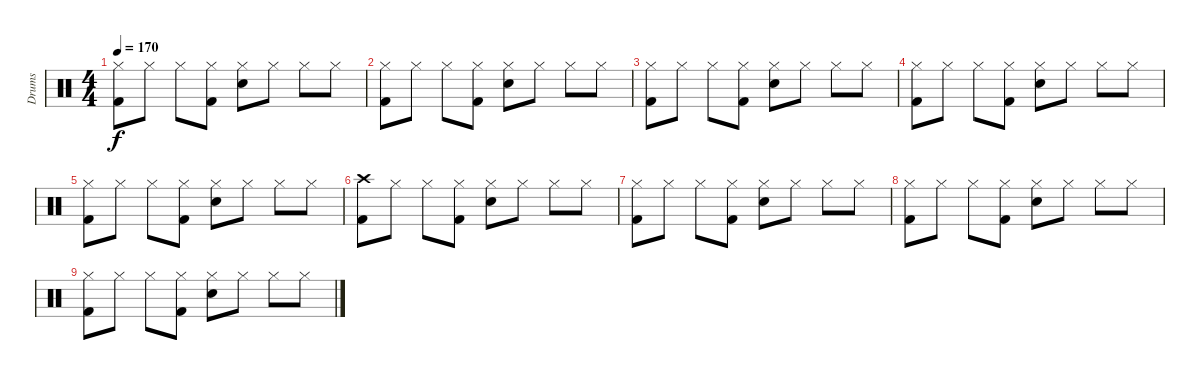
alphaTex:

\track ("Drums" "Drums") {instrument percussion}
\staff {score}
\articulation defaults
\ts (4 4)
\tempo 170
\clef neutral
\ks c
("Hi-Hat (closed)" "Kick (hit) 2").8{dy f} "Hi-Hat (closed)".8 "Hi-Hat (closed)".8 ("Hi-Hat (closed)" "Kick (hit) 2").8 ("Hi-Hat (closed)" "Snare (hit) 2").8 "Hi-Hat (closed)".8 "Hi-Hat (closed)".8 "Hi-Hat (closed)".8 |
("Hi-Hat (closed)" "Kick (hit) 2").8 "Hi-Hat (closed)".8 "Hi-Hat (closed)".8 ("Hi-Hat (closed)" "Kick (hit) 2").8 ("Hi-Hat (closed)" "Snare (hit) 2").8 "Hi-Hat (closed)".8 "Hi-Hat (closed)".8 "Hi-Hat (closed)".8 |
("Hi-Hat (closed)" "Kick (hit) 2").8 "Hi-Hat (closed)".8 "Hi-Hat (closed)".8 ("Hi-Hat (closed)" "Kick (hit) 2").8 ("Hi-Hat (closed)" "Snare (hit) 2").8 "Hi-Hat (closed)".8 "Hi-Hat (closed)".8 "Hi-Hat (closed)".8 |
("Hi-Hat (closed)" "Kick (hit) 2").8 "Hi-Hat (closed)".8 "Hi-Hat (closed)".8 ("Hi-Hat (closed)" "Kick (hit) 2").8 ("Hi-Hat (closed)" "Snare (hit) 2").8 "Hi-Hat (closed)".8 "Hi-Hat (closed)".8 "Hi-Hat (closed)".8 |
("Hi-Hat (closed)" "Kick (hit) 2").8 "Hi-Hat (closed)".8 "Hi-Hat (closed)".8 ("Hi-Hat (closed)" "Kick (hit) 2").8 ("Hi-Hat (closed)" "Snare (hit) 2").8 "Hi-Hat (closed)".8 "Hi-Hat (closed)".8 "Hi-Hat (closed)".8 |
("Crash high (hit)" "Kick (hit) 2").8 "Hi-Hat (closed)".8 "Hi-Hat (closed)".8 ("Hi-Hat (closed)" "Kick (hit) 2").8 ("Hi-Hat (closed)" "Snare (hit) 2").8 "Hi-Hat (closed)".8 "Hi-Hat (closed)".8 "Hi-Hat (closed)".8 |
("Hi-Hat (closed)" "Kick (hit) 2").8 "Hi-Hat (closed)".8 "Hi-Hat (closed)".8 ("Hi-Hat (closed)" "Kick (hit) 2").8 ("Hi-Hat (closed)" "Snare (hit) 2").8 "Hi-Hat (closed)".8 "Hi-Hat (closed)".8 "Hi-Hat (closed)".8 |
("Hi-Hat (closed)" "Kick (hit) 2").8 "Hi-Hat (closed)".8 "Hi-Hat (closed)".8 ("Hi-Hat (closed)" "Kick (hit) 2").8 ("Hi-Hat (closed)" "Snare (hit) 2").8 "Hi-Hat (closed)".8 "Hi-Hat (closed)".8 "Hi-Hat (closed)".8 |
("Hi-Hat (closed)" "Kick (hit) 2").8 "Hi-Hat (closed)".8 "Hi-Hat (closed)".8 ("Hi-Hat (closed)" "Kick (hit) 2").8 ("Hi-Hat (closed)" "Snare (hit) 2").8 "Hi-Hat (closed)".8 "Hi-Hat (closed)".8 "Hi-Hat (closed)".8
